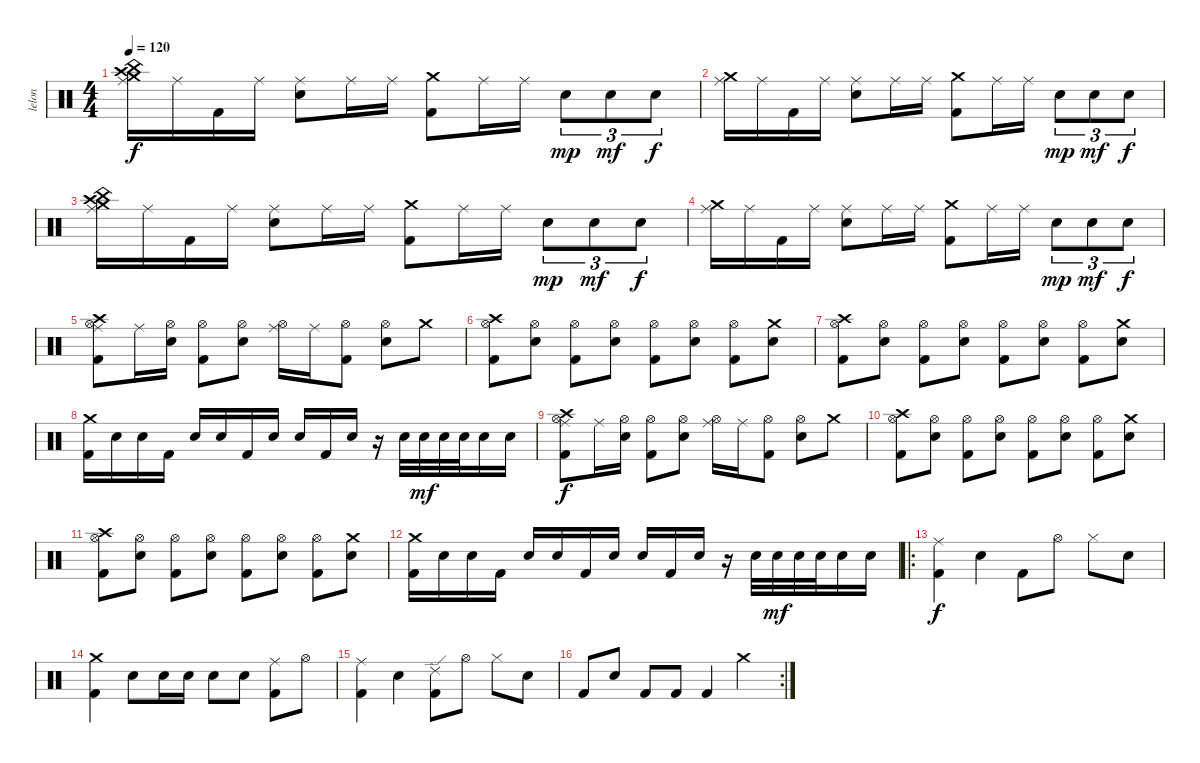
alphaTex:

\track ("lelon" "lelon") {instrument percussion}
\staff {score}
\articulation defaults
\ts (4 4)
\tempo 120
\clef neutral
\ks c
("Ride (middle)" "Crash medium (hit)" "Crash high (hit)" "China (hit)").16{dy f} "Ride (middle)".16 "Kick (hit) 2".16 "Ride (middle)".16 ("Ride (middle)" "Electric Snare (hit)").8 "Ride (middle)".16 "Ride (middle)".16 ("Crash medium (hit)" "Kick (hit) 2").8 "Ride (middle)".16 "Ride (middle)".16 "Electric Snare (hit)".8{tu (3 2) dy mp} "Electric Snare (hit)".8{tu (3 2) dy mf} "Electric Snare (hit)".8{tu (3 2) dy f} |
("Ride (middle)" "Crash medium (hit)").16 "Ride (middle)".16 "Kick (hit) 2".16 "Ride (middle)".16 ("Ride (middle)" "Electric Snare (hit)").8 "Ride (middle)".16 "Ride (middle)".16 ("Crash medium (hit)" "Kick (hit) 2").8 "Ride (middle)".16 "Ride (middle)".16 "Electric Snare (hit)".8{tu (3 2) dy mp} "Electric Snare (hit)".8{tu (3 2) dy mf} "Electric Snare (hit)".8{tu (3 2) dy f} |
("Ride (middle)" "Crash medium (hit)" "Crash high (hit)" "China (hit)").16 "Ride (middle)".16 "Kick (hit) 2".16 "Ride (middle)".16 ("Ride (middle)" "Electric Snare (hit)").8 "Ride (middle)".16 "Ride (middle)".16 ("Crash medium (hit)" "Kick (hit) 2").8 "Ride (middle)".16 "Ride (middle)".16 "Electric Snare (hit)".8{tu (3 2) dy mp} "Electric Snare (hit)".8{tu (3 2) dy mf} "Electric Snare (hit)".8{tu (3 2) dy f} |
("Ride (middle)" "Crash medium (hit)").16 "Ride (middle)".16 "Kick (hit) 2".16 "Ride (middle)".16 ("Ride (middle)" "Electric Snare (hit)").8 "Ride (middle)".16 "Ride (middle)".16 ("Crash medium (hit)" "Kick (hit) 2").8 "Ride (middle)".16 "Ride (middle)".16 "Electric Snare (hit)".8{tu (3 2) dy mp} "Electric Snare (hit)".8{tu (3 2) dy mf} "Electric Snare (hit)".8{tu (3 2) dy f} |
("Ride (middle)" "Crash high (hit)" "Hi-Hat (open)" "Kick (hit) 2").8 "Ride (middle)".16 ("Hi-Hat (open)" "Electric Snare (hit)").16 ("Hi-Hat (open)" "Kick (hit) 2").8 ("Hi-Hat (open)" "Electric Snare (hit)").8 ("Ride (middle)" "Hi-Hat (open)").16 "Ride (middle)".16 ("Hi-Hat (open)" "Kick (hit) 2").8 ("Hi-Hat (open)" "Electric Snare (hit)").8 "Crash medium (hit)".8 |
("Crash high (hit)" "Hi-Hat (open)" "Kick (hit) 2").8 ("Hi-Hat (open)" "Electric Snare (hit)").8 ("Hi-Hat (open)" "Kick (hit) 2").8 ("Hi-Hat (open)" "Electric Snare (hit)").8 ("Hi-Hat (open)" "Kick (hit) 2").8 ("Hi-Hat (open)" "Electric Snare (hit)").8 ("Hi-Hat (open)" "Kick (hit) 2").8 ("Crash medium (hit)" "Electric Snare (hit)").8 |
("Crash high (hit)" "Hi-Hat (open)" "Kick (hit) 2").8 ("Hi-Hat (open)" "Electric Snare (hit)").8 ("Hi-Hat (open)" "Kick (hit) 2").8 ("Hi-Hat (open)" "Electric Snare (hit)").8 ("Hi-Hat (open)" "Kick (hit) 2").8 ("Hi-Hat (open)" "Electric Snare (hit)").8 ("Hi-Hat (open)" "Kick (hit) 2").8 ("Crash medium (hit)" "Electric Snare (hit)").8 |
("Crash medium (hit)" "Kick (hit) 2").16 "Electric Snare (hit)".16 "Electric Snare (hit)".16 "Kick (hit) 2".16 "Electric Snare (hit)".16 "Electric Snare (hit)".16 "Kick (hit) 2".16 "Electric Snare (hit)".16 "Electric Snare (hit)".16 "Kick (hit) 2".16 "Electric Snare (hit)".16 r.16 "Electric Snare (hit)".32 "Electric Snare (hit)".32{dy mf} "Electric Snare (hit)".32 "Electric Snare (hit)".32 "Electric Snare (hit)".16 "Electric Snare (hit)".16 |
("Ride (middle)" "Crash high (hit)" "Hi-Hat (open)" "Kick (hit) 2").8{dy f} "Ride (middle)".16 ("Hi-Hat (open)" "Electric Snare (hit)").16 ("Hi-Hat (open)" "Kick (hit) 2").8 ("Hi-Hat (open)" "Electric Snare (hit)").8 ("Ride (middle)" "Hi-Hat (open)").16 "Ride (middle)".16 ("Hi-Hat (open)" "Kick (hit) 2").8 ("Hi-Hat (open)" "Electric Snare (hit)").8 "Crash medium (hit)".8 |
("Crash high (hit)" "Hi-Hat (open)" "Kick (hit) 2").8 ("Hi-Hat (open)" "Electric Snare (hit)").8 ("Hi-Hat (open)" "Kick (hit) 2").8 ("Hi-Hat (open)" "Electric Snare (hit)").8 ("Hi-Hat (open)" "Kick (hit) 2").8 ("Hi-Hat (open)" "Electric Snare (hit)").8 ("Hi-Hat (open)" "Kick (hit) 2").8 ("Crash medium (hit)" "Electric Snare (hit)").8 |
("Crash high (hit)" "Hi-Hat (open)" "Kick (hit) 2").8 ("Hi-Hat (open)" "Electric Snare (hit)").8 ("Hi-Hat (open)" "Kick (hit) 2").8 ("Hi-Hat (open)" "Electric Snare (hit)").8 ("Hi-Hat (open)" "Kick (hit) 2").8 ("Hi-Hat (open)" "Electric Snare (hit)").8 ("Hi-Hat (open)" "Kick (hit) 2").8 ("Crash medium (hit)" "Electric Snare (hit)").8 |
("Crash medium (hit)" "Kick (hit) 2").16 "Electric Snare (hit)".16 "Electric Snare (hit)".16 "Kick (hit) 2".16 "Electric Snare (hit)".16 "Electric Snare (hit)".16 "Kick (hit) 2".16 "Electric Snare (hit)".16 "Electric Snare (hit)".16 "Kick (hit) 2".16 "Electric Snare (hit)".16 r.16 "Electric Snare (hit)".32 "Electric Snare (hit)".32{dy mf} "Electric Snare (hit)".32 "Electric Snare (hit)".32 "Electric Snare (hit)".16 "Electric Snare (hit)".16 |
\ro
("Ride (middle)" "Kick (hit) 2").4{dy f balance 0} "Electric Snare (hit)".4{balance 16} "Kick (hit) 2".8{balance 0} "Hi-Hat (open)".8{balance 16} "Hi-Hat (closed)".8 "Electric Snare (hit)".8{balance 0} |
("Crash medium (hit)" "Kick (hit) 2").4{balance 16} "Electric Snare (hit)".8{balance 0} "Electric Snare (hit)".16{balance 16} "Electric Snare (hit)".16{balance 0} "Electric Snare (hit)".8{balance 16} "Electric Snare (hit)".8{balance 0} ("Ride (middle)" "Kick (hit) 2").8{balance 16} "Hi-Hat (open)".8{balance 0} |
("Ride (middle)" "Kick (hit) 2").4{balance 0} "Electric Snare (hit)".4{balance 16} ("Ride (edge) 2" "Kick (hit) 2").8{balance 0} "Hi-Hat (open)".8{balance 16} "Hi-Hat (closed)".8 "Electric Snare (hit)".8{balance 0} |
\rc 2 "Kick (hit) 2".8{balance 8} "Electric Snare (hit)".8 "Kick (hit) 2".8 "Kick (hit) 2".8 "Kick (hit) 2".4 "Crash medium (hit)".4
